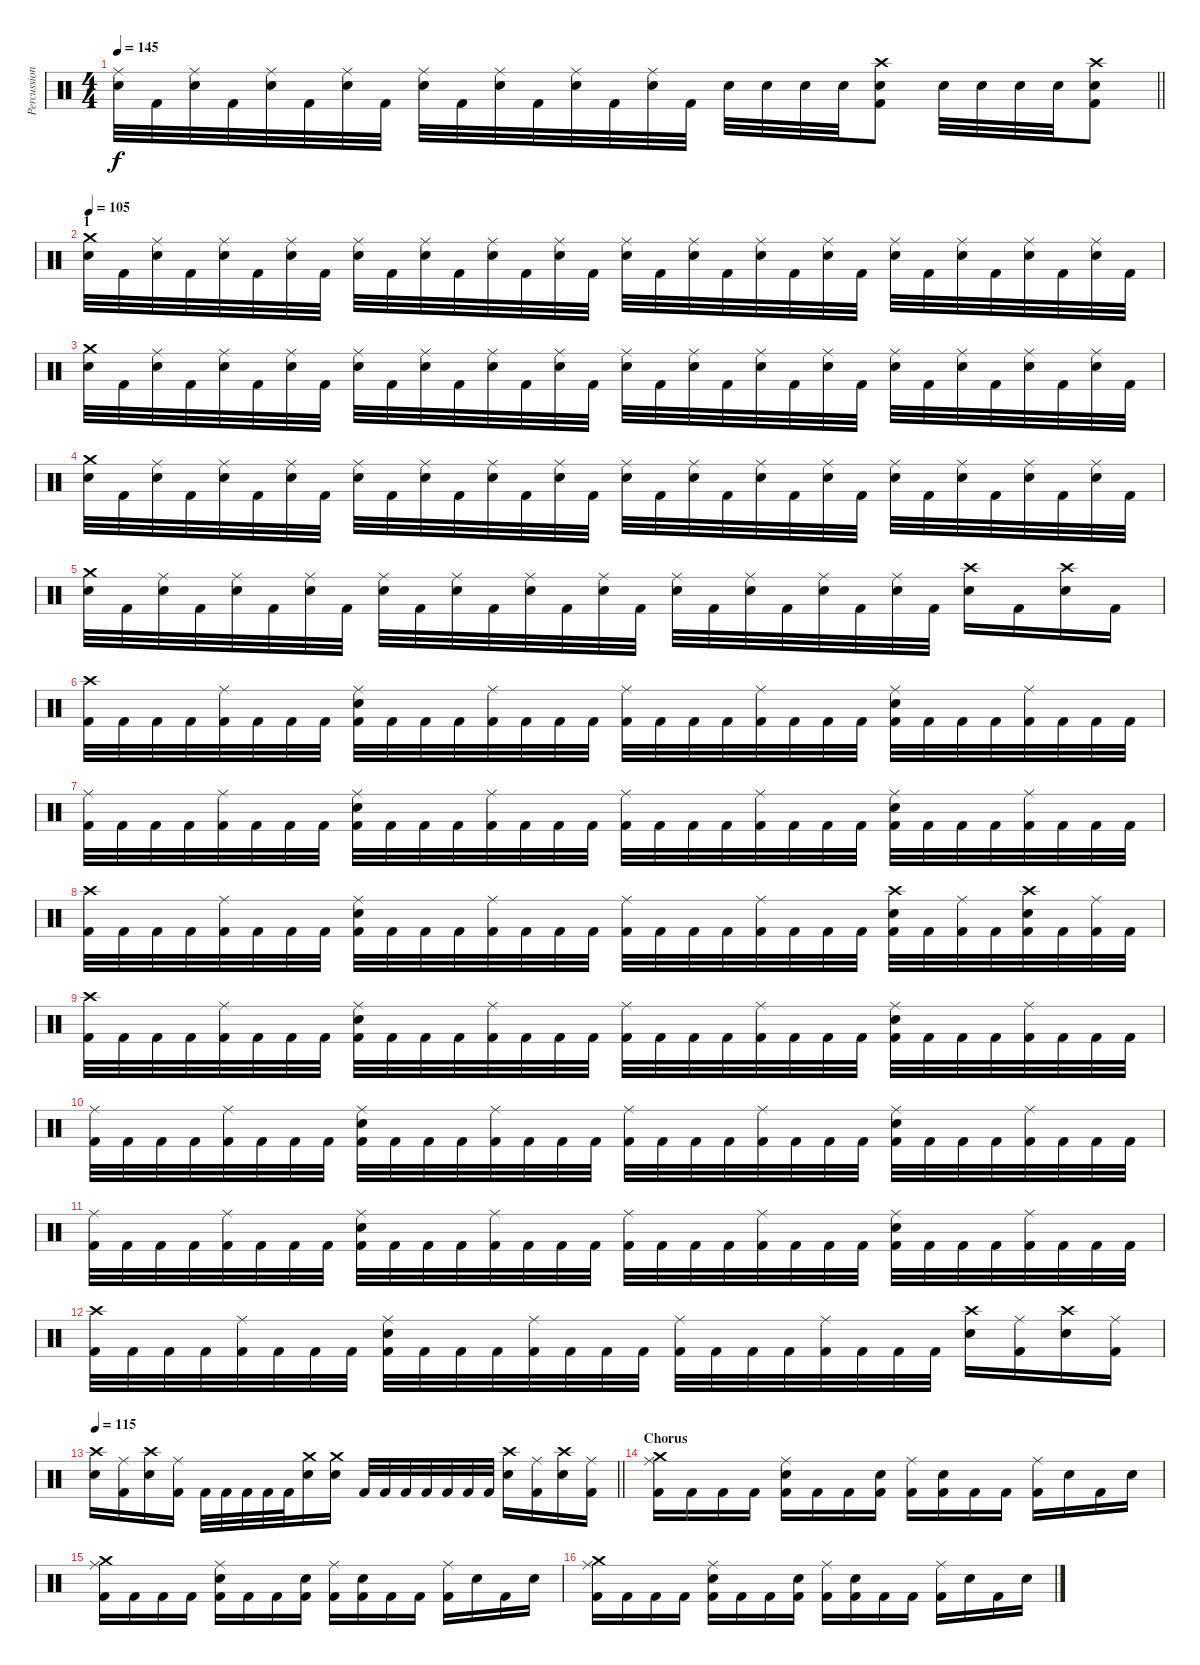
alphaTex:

\track ("Percussion" "Percussion") {instrument percussion}
\staff {score}
\articulation defaults
\ts (4 4)
\tempo 145
\clef neutral
\barLineRight lightlight
\ks c
("Ride (middle)" "Electric Snare (hit)").32{dy f} "Kick (hit) 2".32 ("Ride (middle)" "Electric Snare (hit)").32 "Kick (hit) 2".32 ("Ride (middle)" "Electric Snare (hit)").32 "Kick (hit) 2".32 ("Ride (middle)" "Electric Snare (hit)").32 "Kick (hit) 2".32 ("Ride (middle)" "Electric Snare (hit)").32 "Kick (hit) 2".32 ("Ride (middle)" "Electric Snare (hit)").32 "Kick (hit) 2".32 ("Ride (middle)" "Electric Snare (hit)").32 "Kick (hit) 2".32 ("Ride (middle)" "Electric Snare (hit)").32 "Kick (hit) 2".32 "Electric Snare (hit)".32 "Electric Snare (hit)".32 "Electric Snare (hit)".32 "Electric Snare (hit)".32 ("Crash high (hit)" "Electric Snare (hit)" "Kick (hit) 2").8 "Electric Snare (hit)".32 "Electric Snare (hit)".32 "Electric Snare (hit)".32 "Electric Snare (hit)".32 ("Crash high (hit)" "Electric Snare (hit)" "Kick (hit) 2").8 |
\section ("" "1")
\tempo 105
("Crash medium (hit)" "Electric Snare (hit)").32 "Kick (hit) 2".32 ("Ride (middle)" "Electric Snare (hit)").32 "Kick (hit) 2".32 ("Ride (middle)" "Electric Snare (hit)").32 "Kick (hit) 2".32 ("Ride (middle)" "Electric Snare (hit)").32 "Kick (hit) 2".32 ("Ride (middle)" "Electric Snare (hit)").32 "Kick (hit) 2".32 ("Ride (middle)" "Electric Snare (hit)").32 "Kick (hit) 2".32 ("Ride (middle)" "Electric Snare (hit)").32 "Kick (hit) 2".32 ("Ride (middle)" "Electric Snare (hit)").32 "Kick (hit) 2".32 ("Ride (middle)" "Electric Snare (hit)").32 "Kick (hit) 2".32 ("Ride (middle)" "Electric Snare (hit)").32 "Kick (hit) 2".32 ("Ride (middle)" "Electric Snare (hit)").32 "Kick (hit) 2".32 ("Ride (middle)" "Electric Snare (hit)").32 "Kick (hit) 2".32 ("Ride (middle)" "Electric Snare (hit)").32 "Kick (hit) 2".32 ("Ride (middle)" "Electric Snare (hit)").32 "Kick (hit) 2".32 ("Ride (middle)" "Electric Snare (hit)").32 "Kick (hit) 2".32 ("Ride (middle)" "Electric Snare (hit)").32 "Kick (hit) 2".32 |
("Crash medium (hit)" "Electric Snare (hit)").32 "Kick (hit) 2".32 ("Ride (middle)" "Electric Snare (hit)").32 "Kick (hit) 2".32 ("Ride (middle)" "Electric Snare (hit)").32 "Kick (hit) 2".32 ("Ride (middle)" "Electric Snare (hit)").32 "Kick (hit) 2".32 ("Ride (middle)" "Electric Snare (hit)").32 "Kick (hit) 2".32 ("Ride (middle)" "Electric Snare (hit)").32 "Kick (hit) 2".32 ("Ride (middle)" "Electric Snare (hit)").32 "Kick (hit) 2".32 ("Ride (middle)" "Electric Snare (hit)").32 "Kick (hit) 2".32 ("Ride (middle)" "Electric Snare (hit)").32 "Kick (hit) 2".32 ("Ride (middle)" "Electric Snare (hit)").32 "Kick (hit) 2".32 ("Ride (middle)" "Electric Snare (hit)").32 "Kick (hit) 2".32 ("Ride (middle)" "Electric Snare (hit)").32 "Kick (hit) 2".32 ("Ride (middle)" "Electric Snare (hit)").32 "Kick (hit) 2".32 ("Ride (middle)" "Electric Snare (hit)").32 "Kick (hit) 2".32 ("Ride (middle)" "Electric Snare (hit)").32 "Kick (hit) 2".32 ("Ride (middle)" "Electric Snare (hit)").32 "Kick (hit) 2".32 |
("Crash medium (hit)" "Electric Snare (hit)").32 "Kick (hit) 2".32 ("Ride (middle)" "Electric Snare (hit)").32 "Kick (hit) 2".32 ("Ride (middle)" "Electric Snare (hit)").32 "Kick (hit) 2".32 ("Ride (middle)" "Electric Snare (hit)").32 "Kick (hit) 2".32 ("Ride (middle)" "Electric Snare (hit)").32 "Kick (hit) 2".32 ("Ride (middle)" "Electric Snare (hit)").32 "Kick (hit) 2".32 ("Ride (middle)" "Electric Snare (hit)").32 "Kick (hit) 2".32 ("Ride (middle)" "Electric Snare (hit)").32 "Kick (hit) 2".32 ("Ride (middle)" "Electric Snare (hit)").32 "Kick (hit) 2".32 ("Ride (middle)" "Electric Snare (hit)").32 "Kick (hit) 2".32 ("Ride (middle)" "Electric Snare (hit)").32 "Kick (hit) 2".32 ("Ride (middle)" "Electric Snare (hit)").32 "Kick (hit) 2".32 ("Ride (middle)" "Electric Snare (hit)").32 "Kick (hit) 2".32 ("Ride (middle)" "Electric Snare (hit)").32 "Kick (hit) 2".32 ("Ride (middle)" "Electric Snare (hit)").32 "Kick (hit) 2".32 ("Ride (middle)" "Electric Snare (hit)").32 "Kick (hit) 2".32 |
("Crash medium (hit)" "Electric Snare (hit)").32 "Kick (hit) 2".32 ("Ride (middle)" "Electric Snare (hit)").32 "Kick (hit) 2".32 ("Ride (middle)" "Electric Snare (hit)").32 "Kick (hit) 2".32 ("Ride (middle)" "Electric Snare (hit)").32 "Kick (hit) 2".32 ("Ride (middle)" "Electric Snare (hit)").32 "Kick (hit) 2".32 ("Ride (middle)" "Electric Snare (hit)").32 "Kick (hit) 2".32 ("Ride (middle)" "Electric Snare (hit)").32 "Kick (hit) 2".32 ("Ride (middle)" "Electric Snare (hit)").32 "Kick (hit) 2".32 ("Ride (middle)" "Electric Snare (hit)").32 "Kick (hit) 2".32 ("Ride (middle)" "Electric Snare (hit)").32 "Kick (hit) 2".32 ("Ride (middle)" "Electric Snare (hit)").32 "Kick (hit) 2".32 ("Ride (middle)" "Electric Snare (hit)").32 "Kick (hit) 2".32 ("Crash high (hit)" "Electric Snare (hit)").16 "Kick (hit) 2".16 ("Crash high (hit)" "Electric Snare (hit)").16 "Kick (hit) 2".16 |
("Crash high (hit)" "Kick (hit) 2").32 "Kick (hit) 2".32 "Kick (hit) 2".32 "Kick (hit) 2".32 ("Ride (middle)" "Kick (hit) 2").32 "Kick (hit) 2".32 "Kick (hit) 2".32 "Kick (hit) 2".32 ("Ride (middle)" "Electric Snare (hit)" "Kick (hit) 2").32 "Kick (hit) 2".32 "Kick (hit) 2".32 "Kick (hit) 2".32 ("Ride (middle)" "Kick (hit) 2").32 "Kick (hit) 2".32 "Kick (hit) 2".32 "Kick (hit) 2".32 ("Ride (middle)" "Kick (hit) 2").32 "Kick (hit) 2".32 "Kick (hit) 2".32 "Kick (hit) 2".32 ("Ride (middle)" "Kick (hit) 2").32 "Kick (hit) 2".32 "Kick (hit) 2".32 "Kick (hit) 2".32 ("Ride (middle)" "Electric Snare (hit)" "Kick (hit) 2").32 "Kick (hit) 2".32 "Kick (hit) 2".32 "Kick (hit) 2".32 ("Ride (middle)" "Kick (hit) 2").32 "Kick (hit) 2".32 "Kick (hit) 2".32 "Kick (hit) 2".32 |
("Ride (middle)" "Kick (hit) 2").32 "Kick (hit) 2".32 "Kick (hit) 2".32 "Kick (hit) 2".32 ("Ride (middle)" "Kick (hit) 2").32 "Kick (hit) 2".32 "Kick (hit) 2".32 "Kick (hit) 2".32 ("Ride (middle)" "Electric Snare (hit)" "Kick (hit) 2").32 "Kick (hit) 2".32 "Kick (hit) 2".32 "Kick (hit) 2".32 ("Ride (middle)" "Kick (hit) 2").32 "Kick (hit) 2".32 "Kick (hit) 2".32 "Kick (hit) 2".32 ("Ride (middle)" "Kick (hit) 2").32 "Kick (hit) 2".32 "Kick (hit) 2".32 "Kick (hit) 2".32 ("Ride (middle)" "Kick (hit) 2").32 "Kick (hit) 2".32 "Kick (hit) 2".32 "Kick (hit) 2".32 ("Ride (middle)" "Electric Snare (hit)" "Kick (hit) 2").32 "Kick (hit) 2".32 "Kick (hit) 2".32 "Kick (hit) 2".32 ("Ride (middle)" "Kick (hit) 2").32 "Kick (hit) 2".32 "Kick (hit) 2".32 "Kick (hit) 2".32 |
("Crash high (hit)" "Kick (hit) 2").32 "Kick (hit) 2".32 "Kick (hit) 2".32 "Kick (hit) 2".32 ("Ride (middle)" "Kick (hit) 2").32 "Kick (hit) 2".32 "Kick (hit) 2".32 "Kick (hit) 2".32 ("Ride (middle)" "Electric Snare (hit)" "Kick (hit) 2").32 "Kick (hit) 2".32 "Kick (hit) 2".32 "Kick (hit) 2".32 ("Ride (middle)" "Kick (hit) 2").32 "Kick (hit) 2".32 "Kick (hit) 2".32 "Kick (hit) 2".32 ("Ride (middle)" "Kick (hit) 2").32 "Kick (hit) 2".32 "Kick (hit) 2".32 "Kick (hit) 2".32 ("Ride (middle)" "Kick (hit) 2").32 "Kick (hit) 2".32 "Kick (hit) 2".32 "Kick (hit) 2".32 ("Crash high (hit)" "Electric Snare (hit)" "Kick (hit) 2").32 "Kick (hit) 2".32 ("Ride (middle)" "Kick (hit) 2").32 "Kick (hit) 2".32 ("Crash high (hit)" "Electric Snare (hit)" "Kick (hit) 2").32 "Kick (hit) 2".32 ("Ride (middle)" "Kick (hit) 2").32 "Kick (hit) 2".32 |
("Crash high (hit)" "Kick (hit) 2").32 "Kick (hit) 2".32 "Kick (hit) 2".32 "Kick (hit) 2".32 ("Ride (middle)" "Kick (hit) 2").32 "Kick (hit) 2".32 "Kick (hit) 2".32 "Kick (hit) 2".32 ("Ride (middle)" "Electric Snare (hit)" "Kick (hit) 2").32 "Kick (hit) 2".32 "Kick (hit) 2".32 "Kick (hit) 2".32 ("Ride (middle)" "Kick (hit) 2").32 "Kick (hit) 2".32 "Kick (hit) 2".32 "Kick (hit) 2".32 ("Ride (middle)" "Kick (hit) 2").32 "Kick (hit) 2".32 "Kick (hit) 2".32 "Kick (hit) 2".32 ("Ride (middle)" "Kick (hit) 2").32 "Kick (hit) 2".32 "Kick (hit) 2".32 "Kick (hit) 2".32 ("Ride (middle)" "Electric Snare (hit)" "Kick (hit) 2").32 "Kick (hit) 2".32 "Kick (hit) 2".32 "Kick (hit) 2".32 ("Ride (middle)" "Kick (hit) 2").32 "Kick (hit) 2".32 "Kick (hit) 2".32 "Kick (hit) 2".32 |
("Ride (middle)" "Kick (hit) 2").32 "Kick (hit) 2".32 "Kick (hit) 2".32 "Kick (hit) 2".32 ("Ride (middle)" "Kick (hit) 2").32 "Kick (hit) 2".32 "Kick (hit) 2".32 "Kick (hit) 2".32 ("Ride (middle)" "Electric Snare (hit)" "Kick (hit) 2").32 "Kick (hit) 2".32 "Kick (hit) 2".32 "Kick (hit) 2".32 ("Ride (middle)" "Kick (hit) 2").32 "Kick (hit) 2".32 "Kick (hit) 2".32 "Kick (hit) 2".32 ("Ride (middle)" "Kick (hit) 2").32 "Kick (hit) 2".32 "Kick (hit) 2".32 "Kick (hit) 2".32 ("Ride (middle)" "Kick (hit) 2").32 "Kick (hit) 2".32 "Kick (hit) 2".32 "Kick (hit) 2".32 ("Ride (middle)" "Electric Snare (hit)" "Kick (hit) 2").32 "Kick (hit) 2".32 "Kick (hit) 2".32 "Kick (hit) 2".32 ("Ride (middle)" "Kick (hit) 2").32 "Kick (hit) 2".32 "Kick (hit) 2".32 "Kick (hit) 2".32 |
("Ride (middle)" "Kick (hit) 2").32 "Kick (hit) 2".32 "Kick (hit) 2".32 "Kick (hit) 2".32 ("Ride (middle)" "Kick (hit) 2").32 "Kick (hit) 2".32 "Kick (hit) 2".32 "Kick (hit) 2".32 ("Ride (middle)" "Electric Snare (hit)" "Kick (hit) 2").32 "Kick (hit) 2".32 "Kick (hit) 2".32 "Kick (hit) 2".32 ("Ride (middle)" "Kick (hit) 2").32 "Kick (hit) 2".32 "Kick (hit) 2".32 "Kick (hit) 2".32 ("Ride (middle)" "Kick (hit) 2").32 "Kick (hit) 2".32 "Kick (hit) 2".32 "Kick (hit) 2".32 ("Ride (middle)" "Kick (hit) 2").32 "Kick (hit) 2".32 "Kick (hit) 2".32 "Kick (hit) 2".32 ("Ride (middle)" "Electric Snare (hit)" "Kick (hit) 2").32 "Kick (hit) 2".32 "Kick (hit) 2".32 "Kick (hit) 2".32 ("Ride (middle)" "Kick (hit) 2").32 "Kick (hit) 2".32 "Kick (hit) 2".32 "Kick (hit) 2".32 |
("Crash high (hit)" "Kick (hit) 2").32 "Kick (hit) 2".32 "Kick (hit) 2".32 "Kick (hit) 2".32 ("Ride (middle)" "Kick (hit) 2").32 "Kick (hit) 2".32 "Kick (hit) 2".32 "Kick (hit) 2".32 ("Ride (middle)" "Electric Snare (hit)" "Kick (hit) 2").32 "Kick (hit) 2".32 "Kick (hit) 2".32 "Kick (hit) 2".32 ("Ride (middle)" "Kick (hit) 2").32 "Kick (hit) 2".32 "Kick (hit) 2".32 "Kick (hit) 2".32 ("Ride (middle)" "Kick (hit) 2").32 "Kick (hit) 2".32 "Kick (hit) 2".32 "Kick (hit) 2".32 ("Ride (middle)" "Kick (hit) 2").32 "Kick (hit) 2".32 "Kick (hit) 2".32 "Kick (hit) 2".32 ("Crash high (hit)" "Electric Snare (hit)").16 ("Ride (middle)" "Kick (hit) 2").16 ("Crash high (hit)" "Electric Snare (hit)").16 ("Ride (middle)" "Kick (hit) 2").16 |
\tempo 115
\barLineRight lightlight
("Crash high (hit)" "Electric Snare (hit)").16 ("Ride (middle)" "Kick (hit) 2").16 ("Crash high (hit)" "Electric Snare (hit)").16 ("Ride (middle)" "Kick (hit) 2").16 "Kick (hit) 2".32 "Kick (hit) 2".32 "Kick (hit) 2".32 "Kick (hit) 2".32 "Kick (hit) 2".32 ("Crash medium (hit)" "Electric Snare (hit)").16 ("Crash medium (hit)" "Electric Snare (hit)").16 "Kick (hit) 2".32 "Kick (hit) 2".32 "Kick (hit) 2".32 "Kick (hit) 2".32 "Kick (hit) 2".32 "Kick (hit) 2".32 "Kick (hit) 2".32 ("Crash high (hit)" "Electric Snare (hit)").16 ("Ride (middle)" "Kick (hit) 2").16 ("Crash high (hit)" "Electric Snare (hit)").16 ("Ride (middle)" "Kick (hit) 2").16 |
\section ("" "Chorus")
("Crash medium (hit)" "Ride (middle)" "Kick (hit) 2").16 "Kick (hit) 2".16 "Kick (hit) 2".16 "Kick (hit) 2".16 ("Ride (middle)" "Electric Snare (hit)" "Kick (hit) 2").16 "Kick (hit) 2".16 "Kick (hit) 2".16 ("Electric Snare (hit)" "Kick (hit) 2").16 ("Ride (middle)" "Kick (hit) 2").16 ("Electric Snare (hit)" "Kick (hit) 2").16 "Kick (hit) 2".16 "Kick (hit) 2".16 ("Ride (middle)" "Kick (hit) 2").16 "Electric Snare (hit)".16 "Kick (hit) 2".16 "Electric Snare (hit)".16 |
("Crash medium (hit)" "Ride (middle)" "Kick (hit) 2").16 "Kick (hit) 2".16 "Kick (hit) 2".16 "Kick (hit) 2".16 ("Ride (middle)" "Electric Snare (hit)" "Kick (hit) 2").16 "Kick (hit) 2".16 "Kick (hit) 2".16 ("Electric Snare (hit)" "Kick (hit) 2").16 ("Ride (middle)" "Kick (hit) 2").16 ("Electric Snare (hit)" "Kick (hit) 2").16 "Kick (hit) 2".16 "Kick (hit) 2".16 ("Ride (middle)" "Kick (hit) 2").16 "Electric Snare (hit)".16 "Kick (hit) 2".16 "Electric Snare (hit)".16 |
("Crash medium (hit)" "Ride (middle)" "Kick (hit) 2").16 "Kick (hit) 2".16 "Kick (hit) 2".16 "Kick (hit) 2".16 ("Ride (middle)" "Electric Snare (hit)" "Kick (hit) 2").16 "Kick (hit) 2".16 "Kick (hit) 2".16 ("Electric Snare (hit)" "Kick (hit) 2").16 ("Ride (middle)" "Kick (hit) 2").16 ("Electric Snare (hit)" "Kick (hit) 2").16 "Kick (hit) 2".16 "Kick (hit) 2".16 ("Ride (middle)" "Kick (hit) 2").16 "Electric Snare (hit)".16 "Kick (hit) 2".16 "Electric Snare (hit)".16
